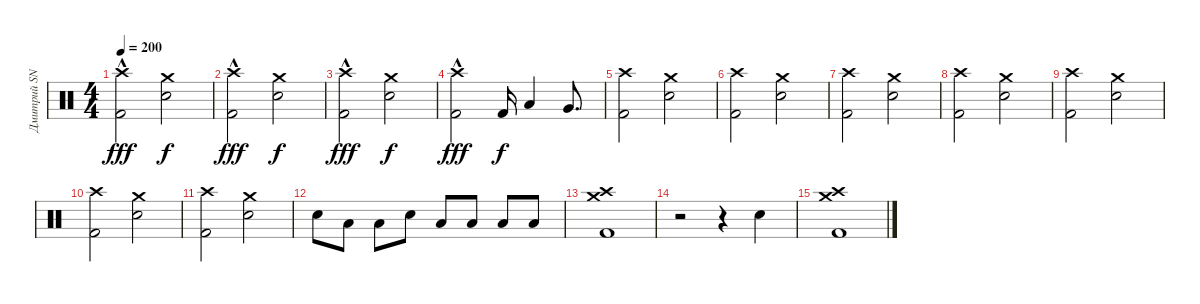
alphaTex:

\track ("Дмитрий SNAKE Хакимов" "Дмитрий SN") {instrument percussion}
\staff {score}
\articulation defaults
\ts (4 4)
\tempo 200
\clef neutral
\ks c
("Crash high (hit)"{hac} "Kick (hit) 2"{hac}).2{dy fff} ("Crash medium (hit)" "Snare (hit) 2").2{dy f} |
("Crash high (hit)"{hac} "Kick (hit) 2"{hac}).2{dy fff} ("Crash medium (hit)" "Snare (hit) 2").2{dy f} |
("Crash high (hit)"{hac} "Kick (hit) 2"{hac}).2{dy fff} ("Crash medium (hit)" "Snare (hit) 2").2{dy f} |
("Crash high (hit)"{hac} "Kick (hit) 2"{hac}).2{dy fff} "Kick (hit) 2".16{dy f} "Low Tom (hit)".4 "Very Low Tom (hit)".8{d} |
("Crash high (hit)" "Kick (hit) 2").2 ("Crash medium (hit)" "Snare (hit) 2").2 |
("Crash high (hit)" "Kick (hit) 2").2 ("Crash medium (hit)" "Snare (hit) 2").2 |
("Crash high (hit)" "Kick (hit) 2").2 ("Crash medium (hit)" "Snare (hit) 2").2 |
("Crash high (hit)" "Kick (hit) 2").2 ("Crash medium (hit)" "Snare (hit) 2").2 |
("Crash high (hit)" "Kick (hit) 2").2 ("Crash medium (hit)" "Snare (hit) 2").2 |
("Crash high (hit)" "Kick (hit) 2").2 ("Crash medium (hit)" "Snare (hit) 2").2 |
("Crash high (hit)" "Kick (hit) 2").2 ("Crash medium (hit)" "Snare (hit) 2").2 |
"Snare (hit) 2".8 "Low Tom (hit)".8 "Low Tom (hit)".8 "Snare (hit) 2".8 "Low Tom (hit)".8 "Low Tom (hit)".8 "Low Tom (hit)".8 "Low Tom (hit)".8 |
("Crash high (hit)" "Crash medium (hit)" "Kick (hit) 2").1 |
r.2 r.4 "Snare (hit) 2".4 |
("Crash high (hit)" "Crash medium (hit)" "Kick (hit) 2").1
